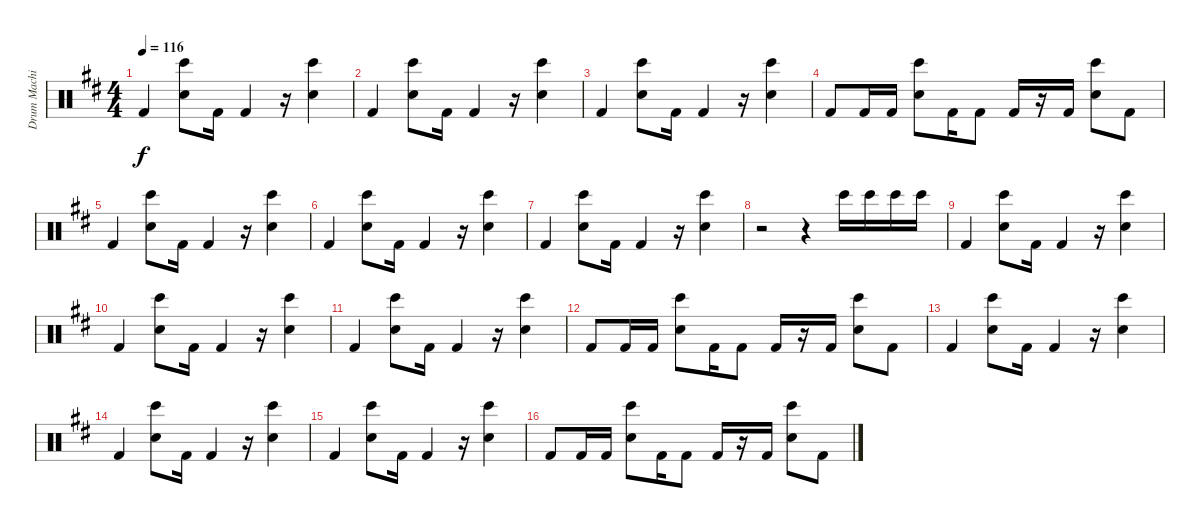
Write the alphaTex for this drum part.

\track ("Drum Machine" "Drum Machi") {instrument percussion}
\staff {score}
\articulation defaults
\ts (4 4)
\tempo 116
\clef neutral
\ks bminor "Kick (hit) 2".4{dy f}
("Bongo High (hit)" "Electric Snare (hit)").8 "Kick (hit) 2".16 "Kick (hit) 2".4 r.16 ("Bongo High (hit)" "Electric Snare (hit)").4 |
"Kick (hit) 2".4 ("Bongo High (hit)" "Electric Snare (hit)").8 "Kick (hit) 2".16 "Kick (hit) 2".4 r.16 ("Bongo High (hit)" "Electric Snare (hit)").4 |
"Kick (hit) 2".4 ("Bongo High (hit)" "Electric Snare (hit)").8 "Kick (hit) 2".16 "Kick (hit) 2".4 r.16 ("Bongo High (hit)" "Electric Snare (hit)").4 |
"Kick (hit) 2".8 "Kick (hit) 2".16 "Kick (hit) 2".16 ("Bongo High (hit)" "Electric Snare (hit)").8 "Kick (hit) 2".16 "Kick (hit) 2".8 "Kick (hit) 2".16 r.16 "Kick (hit) 2".16 ("Bongo High (hit)" "Electric Snare (hit)").8 "Kick (hit) 2".8 |
"Kick (hit) 2".4 ("Bongo High (hit)" "Electric Snare (hit)").8 "Kick (hit) 2".16 "Kick (hit) 2".4 r.16 ("Bongo High (hit)" "Electric Snare (hit)").4 |
"Kick (hit) 2".4 ("Bongo High (hit)" "Electric Snare (hit)").8 "Kick (hit) 2".16 "Kick (hit) 2".4 r.16 ("Bongo High (hit)" "Electric Snare (hit)").4 |
"Kick (hit) 2".4 ("Bongo High (hit)" "Electric Snare (hit)").8 "Kick (hit) 2".16 "Kick (hit) 2".4 r.16 ("Bongo High (hit)" "Electric Snare (hit)").4 |
r.2 r.4 "Bongo High (hit)".16 "Bongo High (hit)".16 "Bongo High (hit)".16 "Bongo High (hit)".16 |
"Kick (hit) 2".4 ("Bongo High (hit)" "Electric Snare (hit)").8 "Kick (hit) 2".16 "Kick (hit) 2".4 r.16 ("Bongo High (hit)" "Electric Snare (hit)").4 |
"Kick (hit) 2".4 ("Bongo High (hit)" "Electric Snare (hit)").8 "Kick (hit) 2".16 "Kick (hit) 2".4 r.16 ("Bongo High (hit)" "Electric Snare (hit)").4 |
"Kick (hit) 2".4 ("Bongo High (hit)" "Electric Snare (hit)").8 "Kick (hit) 2".16 "Kick (hit) 2".4 r.16 ("Bongo High (hit)" "Electric Snare (hit)").4 |
"Kick (hit) 2".8 "Kick (hit) 2".16 "Kick (hit) 2".16 ("Bongo High (hit)" "Electric Snare (hit)").8 "Kick (hit) 2".16 "Kick (hit) 2".8 "Kick (hit) 2".16 r.16 "Kick (hit) 2".16 ("Bongo High (hit)" "Electric Snare (hit)").8 "Kick (hit) 2".8 |
"Kick (hit) 2".4 ("Bongo High (hit)" "Electric Snare (hit)").8 "Kick (hit) 2".16 "Kick (hit) 2".4 r.16 ("Bongo High (hit)" "Electric Snare (hit)").4 |
"Kick (hit) 2".4 ("Bongo High (hit)" "Electric Snare (hit)").8 "Kick (hit) 2".16 "Kick (hit) 2".4 r.16 ("Bongo High (hit)" "Electric Snare (hit)").4 |
"Kick (hit) 2".4 ("Bongo High (hit)" "Electric Snare (hit)").8 "Kick (hit) 2".16 "Kick (hit) 2".4 r.16 ("Bongo High (hit)" "Electric Snare (hit)").4 |
"Kick (hit) 2".8 "Kick (hit) 2".16 "Kick (hit) 2".16 ("Bongo High (hit)" "Electric Snare (hit)").8 "Kick (hit) 2".16 "Kick (hit) 2".8 "Kick (hit) 2".16 r.16 "Kick (hit) 2".16 ("Bongo High (hit)" "Electric Snare (hit)").8 "Kick (hit) 2".8
